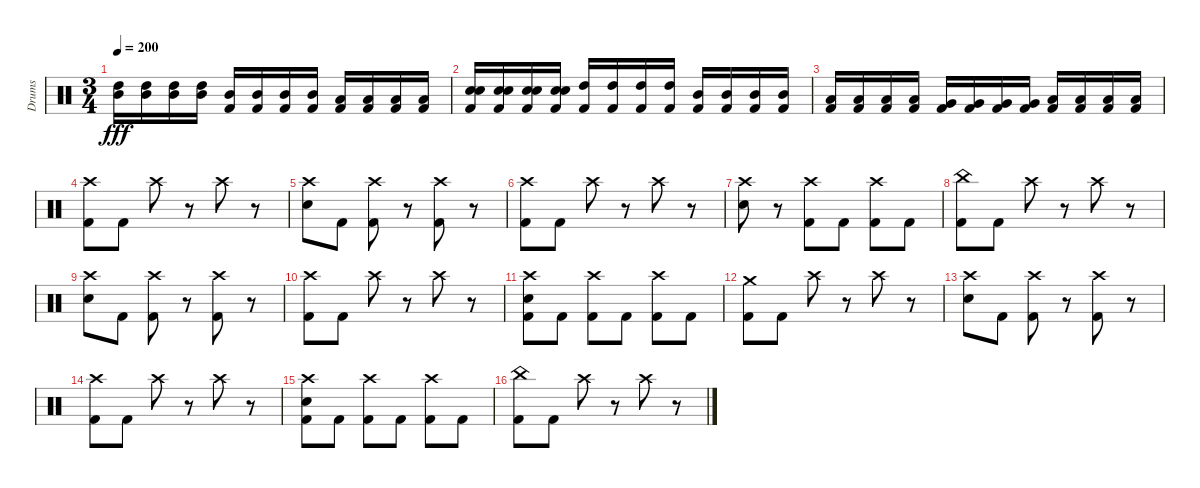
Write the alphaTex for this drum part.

\track ("Drums" "Drums") {instrument percussion}
\staff {score}
\articulation defaults
\ts (3 4)
\tempo 200
\clef neutral
\ks c
("High Tom (hit)" "Mid Tom (hit)").16{dy fff} ("High Tom (hit)" "Mid Tom (hit)").16 ("High Tom (hit)" "Mid Tom (hit)").16 ("High Tom (hit)" "Mid Tom (hit)").16 ("Mid Tom (hit)" "Kick (hit) 2").16 ("Mid Tom (hit)" "Kick (hit) 2").16 ("Mid Tom (hit)" "Kick (hit) 2").16 ("Mid Tom (hit)" "Kick (hit) 2").16 ("Low Tom (hit)" "Kick (hit) 2").16 ("Low Tom (hit)" "Kick (hit) 2").16 ("Low Tom (hit)" "Kick (hit) 2").16 ("Low Tom (hit)" "Kick (hit) 2").16 |
("Electric Snare (hit)" "Snare (hit) 2" "Kick (hit) 2").16 ("Electric Snare (hit)" "Snare (hit) 2" "Kick (hit) 2").16 ("Electric Snare (hit)" "Snare (hit) 2" "Kick (hit) 2").16 ("Electric Snare (hit)" "Snare (hit) 2" "Kick (hit) 2").16 ("High Tom (hit)" "Kick (hit) 2").16 ("High Tom (hit)" "Kick (hit) 2").16 ("High Tom (hit)" "Kick (hit) 2").16 ("High Tom (hit)" "Kick (hit) 2").16 ("Mid Tom (hit)" "Kick (hit) 2").16 ("Mid Tom (hit)" "Kick (hit) 2").16 ("Mid Tom (hit)" "Kick (hit) 2").16 ("Mid Tom (hit)" "Kick (hit) 2").16 |
("Low Tom (hit)" "Kick (hit) 2").16 ("Low Tom (hit)" "Kick (hit) 2").16 ("Low Tom (hit)" "Kick (hit) 2").16 ("Low Tom (hit)" "Kick (hit) 2").16 ("Very Low Tom (hit)" "Kick (hit) 2").16 ("Very Low Tom (hit)" "Kick (hit) 2").16 ("Very Low Tom (hit)" "Kick (hit) 2").16 ("Very Low Tom (hit)" "Kick (hit) 2").16 ("Low Floor Tom (hit)" "Kick (hit) 2").16 ("Low Floor Tom (hit)" "Kick (hit) 2").16 ("Low Floor Tom (hit)" "Kick (hit) 2").16 ("Low Floor Tom (hit)" "Kick (hit) 2").16 |
("Crash high (hit)" "Kick (hit) 2").8 "Kick (hit) 2".8 "Crash high (hit)".8 r.8 "Crash high (hit)".8 r.8 |
("Crash high (hit)" "Snare (hit) 2").8 "Kick (hit) 2".8 ("Crash high (hit)" "Kick (hit) 2").8 r.8 ("Crash high (hit)" "Kick (hit) 2").8 r.8 |
("Crash high (hit)" "Kick (hit) 2").8 "Kick (hit) 2".8 "Crash high (hit)".8 r.8 "Crash high (hit)".8 r.8 |
("Crash high (hit)" "Snare (hit) 2").8 r.8 ("Crash high (hit)" "Kick (hit) 2").8 "Kick (hit) 2".8 ("Crash high (hit)" "Kick (hit) 2").8 "Kick (hit) 2".8 |
("China (hit)" "Kick (hit) 2").8 "Kick (hit) 2".8 "Crash high (hit)".8 r.8 "Crash high (hit)".8 r.8 |
("Crash high (hit)" "Snare (hit) 2").8 "Kick (hit) 2".8 ("Crash high (hit)" "Kick (hit) 2").8 r.8 ("Crash high (hit)" "Kick (hit) 2").8 r.8 |
("Crash high (hit)" "Kick (hit) 2").8 "Kick (hit) 2".8 "Crash high (hit)".8 r.8 "Crash high (hit)".8 r.8 |
("Crash high (hit)" "Snare (hit) 2" "Kick (hit) 2").8 "Kick (hit) 2".8 ("Crash high (hit)" "Kick (hit) 2").8 "Kick (hit) 2".8 ("Crash high (hit)" "Kick (hit) 2").8 "Kick (hit) 2".8 |
("Crash medium (hit)" "Kick (hit) 2").8 "Kick (hit) 2".8 "Crash high (hit)".8 r.8 "Crash high (hit)".8 r.8 |
("Crash high (hit)" "Snare (hit) 2").8 "Kick (hit) 2".8 ("Crash high (hit)" "Kick (hit) 2").8 r.8 ("Crash high (hit)" "Kick (hit) 2").8 r.8 |
("Crash high (hit)" "Kick (hit) 2").8 "Kick (hit) 2".8 "Crash high (hit)".8 r.8 "Crash high (hit)".8 r.8 |
("Crash high (hit)" "Snare (hit) 2" "Kick (hit) 2").8 "Kick (hit) 2".8 ("Crash high (hit)" "Kick (hit) 2").8 "Kick (hit) 2".8 ("Crash high (hit)" "Kick (hit) 2").8 "Kick (hit) 2".8 |
("China (hit)" "Kick (hit) 2").8 "Kick (hit) 2".8 "Crash high (hit)".8 r.8 "Crash high (hit)".8 r.8
